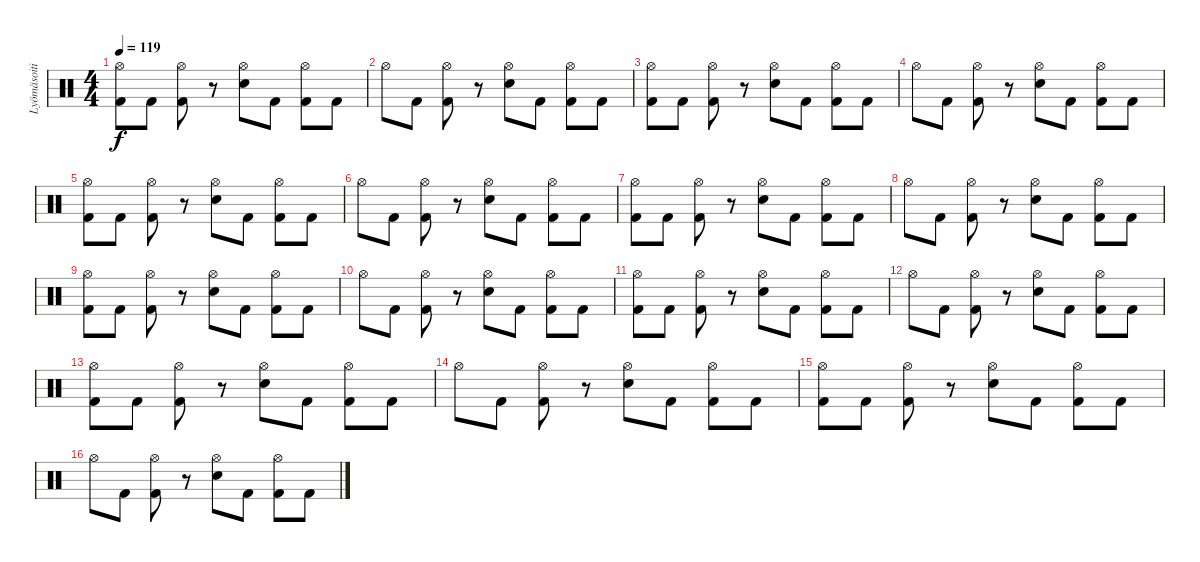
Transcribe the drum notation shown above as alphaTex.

\track ("Lyömäsoitin" "Lyömäsoiti") {instrument percussion}
\staff {score}
\articulation defaults
\ts (4 4)
\tempo 119
\clef neutral
\ks c
("Hi-Hat (open)" "Kick (hit) 2").8{dy f} "Kick (hit) 2".8 ("Hi-Hat (open)" "Kick (hit) 2").8 r.8 ("Hi-Hat (open)" "Snare (hit) 2").8 "Kick (hit) 2".8 ("Hi-Hat (open)" "Kick (hit) 2").8 "Kick (hit) 2".8 |
"Hi-Hat (open)".8 "Kick (hit) 2".8 ("Hi-Hat (open)" "Kick (hit) 2").8 r.8 ("Hi-Hat (open)" "Snare (hit) 2").8 "Kick (hit) 2".8 ("Hi-Hat (open)" "Kick (hit) 2").8 "Kick (hit) 2".8 |
("Hi-Hat (open)" "Kick (hit) 2").8 "Kick (hit) 2".8 ("Hi-Hat (open)" "Kick (hit) 2").8 r.8 ("Hi-Hat (open)" "Snare (hit) 2").8 "Kick (hit) 2".8 ("Hi-Hat (open)" "Kick (hit) 2").8 "Kick (hit) 2".8 |
"Hi-Hat (open)".8 "Kick (hit) 2".8 ("Hi-Hat (open)" "Kick (hit) 2").8 r.8 ("Hi-Hat (open)" "Snare (hit) 2").8 "Kick (hit) 2".8 ("Hi-Hat (open)" "Kick (hit) 2").8 "Kick (hit) 2".8 |
("Hi-Hat (open)" "Kick (hit) 2").8 "Kick (hit) 2".8 ("Hi-Hat (open)" "Kick (hit) 2").8 r.8 ("Hi-Hat (open)" "Snare (hit) 2").8 "Kick (hit) 2".8 ("Hi-Hat (open)" "Kick (hit) 2").8 "Kick (hit) 2".8 |
"Hi-Hat (open)".8 "Kick (hit) 2".8 ("Hi-Hat (open)" "Kick (hit) 2").8 r.8 ("Hi-Hat (open)" "Snare (hit) 2").8 "Kick (hit) 2".8 ("Hi-Hat (open)" "Kick (hit) 2").8 "Kick (hit) 2".8 |
("Hi-Hat (open)" "Kick (hit) 2").8 "Kick (hit) 2".8 ("Hi-Hat (open)" "Kick (hit) 2").8 r.8 ("Hi-Hat (open)" "Snare (hit) 2").8 "Kick (hit) 2".8 ("Hi-Hat (open)" "Kick (hit) 2").8 "Kick (hit) 2".8 |
"Hi-Hat (open)".8 "Kick (hit) 2".8 ("Hi-Hat (open)" "Kick (hit) 2").8 r.8 ("Hi-Hat (open)" "Snare (hit) 2").8 "Kick (hit) 2".8 ("Hi-Hat (open)" "Kick (hit) 2").8 "Kick (hit) 2".8 |
("Hi-Hat (open)" "Kick (hit) 2").8 "Kick (hit) 2".8 ("Hi-Hat (open)" "Kick (hit) 2").8 r.8 ("Hi-Hat (open)" "Snare (hit) 2").8 "Kick (hit) 2".8 ("Hi-Hat (open)" "Kick (hit) 2").8 "Kick (hit) 2".8 |
"Hi-Hat (open)".8 "Kick (hit) 2".8 ("Hi-Hat (open)" "Kick (hit) 2").8 r.8 ("Hi-Hat (open)" "Snare (hit) 2").8 "Kick (hit) 2".8 ("Hi-Hat (open)" "Kick (hit) 2").8 "Kick (hit) 2".8 |
("Hi-Hat (open)" "Kick (hit) 2").8 "Kick (hit) 2".8 ("Hi-Hat (open)" "Kick (hit) 2").8 r.8 ("Hi-Hat (open)" "Snare (hit) 2").8 "Kick (hit) 2".8 ("Hi-Hat (open)" "Kick (hit) 2").8 "Kick (hit) 2".8 |
"Hi-Hat (open)".8 "Kick (hit) 2".8 ("Hi-Hat (open)" "Kick (hit) 2").8 r.8 ("Hi-Hat (open)" "Snare (hit) 2").8 "Kick (hit) 2".8 ("Hi-Hat (open)" "Kick (hit) 2").8 "Kick (hit) 2".8 |
("Hi-Hat (open)" "Kick (hit) 2").8 "Kick (hit) 2".8 ("Hi-Hat (open)" "Kick (hit) 2").8 r.8 ("Hi-Hat (open)" "Snare (hit) 2").8 "Kick (hit) 2".8 ("Hi-Hat (open)" "Kick (hit) 2").8 "Kick (hit) 2".8 |
"Hi-Hat (open)".8 "Kick (hit) 2".8 ("Hi-Hat (open)" "Kick (hit) 2").8 r.8 ("Hi-Hat (open)" "Snare (hit) 2").8 "Kick (hit) 2".8 ("Hi-Hat (open)" "Kick (hit) 2").8 "Kick (hit) 2".8 |
("Hi-Hat (open)" "Kick (hit) 2").8 "Kick (hit) 2".8 ("Hi-Hat (open)" "Kick (hit) 2").8 r.8 ("Hi-Hat (open)" "Snare (hit) 2").8 "Kick (hit) 2".8 ("Hi-Hat (open)" "Kick (hit) 2").8 "Kick (hit) 2".8 |
"Hi-Hat (open)".8 "Kick (hit) 2".8 ("Hi-Hat (open)" "Kick (hit) 2").8 r.8 ("Hi-Hat (open)" "Snare (hit) 2").8 "Kick (hit) 2".8 ("Hi-Hat (open)" "Kick (hit) 2").8 "Kick (hit) 2".8
